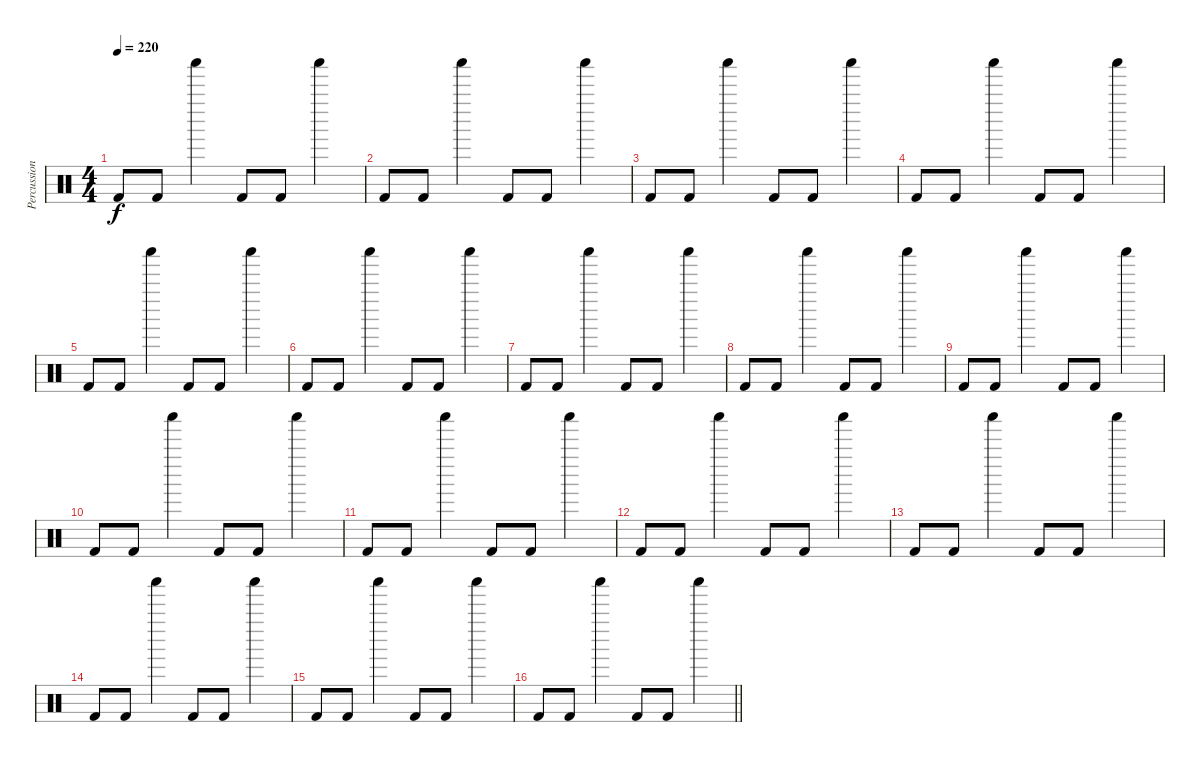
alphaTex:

\track ("Percussions" "Percussion") {instrument percussion}
\staff {score}
\articulation defaults
\ts (4 4)
\tempo 220
\clef neutral
\ks c "Kick (hit) 2".8{dy f} "Kick (hit) 2".8 "Shaker (hit)".4 "Kick (hit) 2".8 "Kick (hit) 2".8 "Shaker (hit)".4
|
"Kick (hit) 2".8 "Kick (hit) 2".8 "Shaker (hit)".4 "Kick (hit) 2".8 "Kick (hit) 2".8 "Shaker (hit)".4 |
"Kick (hit) 2".8 "Kick (hit) 2".8 "Shaker (hit)".4 "Kick (hit) 2".8 "Kick (hit) 2".8 "Shaker (hit)".4 |
"Kick (hit) 2".8 "Kick (hit) 2".8 "Shaker (hit)".4 "Kick (hit) 2".8 "Kick (hit) 2".8 "Shaker (hit)".4 |
"Kick (hit) 2".8 "Kick (hit) 2".8 "Shaker (hit)".4 "Kick (hit) 2".8 "Kick (hit) 2".8 "Shaker (hit)".4 |
"Kick (hit) 2".8 "Kick (hit) 2".8 "Shaker (hit)".4 "Kick (hit) 2".8 "Kick (hit) 2".8 "Shaker (hit)".4 |
"Kick (hit) 2".8 "Kick (hit) 2".8 "Shaker (hit)".4 "Kick (hit) 2".8 "Kick (hit) 2".8 "Shaker (hit)".4 |
"Kick (hit) 2".8 "Kick (hit) 2".8 "Shaker (hit)".4 "Kick (hit) 2".8 "Kick (hit) 2".8 "Shaker (hit)".4 |
"Kick (hit) 2".8 "Kick (hit) 2".8 "Shaker (hit)".4 "Kick (hit) 2".8 "Kick (hit) 2".8 "Shaker (hit)".4 |
"Kick (hit) 2".8 "Kick (hit) 2".8 "Shaker (hit)".4 "Kick (hit) 2".8 "Kick (hit) 2".8 "Shaker (hit)".4 |
"Kick (hit) 2".8 "Kick (hit) 2".8 "Shaker (hit)".4 "Kick (hit) 2".8 "Kick (hit) 2".8 "Shaker (hit)".4 |
"Kick (hit) 2".8 "Kick (hit) 2".8 "Shaker (hit)".4 "Kick (hit) 2".8 "Kick (hit) 2".8 "Shaker (hit)".4 |
"Kick (hit) 2".8 "Kick (hit) 2".8 "Shaker (hit)".4 "Kick (hit) 2".8 "Kick (hit) 2".8 "Shaker (hit)".4 |
"Kick (hit) 2".8 "Kick (hit) 2".8 "Shaker (hit)".4 "Kick (hit) 2".8 "Kick (hit) 2".8 "Shaker (hit)".4 |
"Kick (hit) 2".8 "Kick (hit) 2".8 "Shaker (hit)".4 "Kick (hit) 2".8 "Kick (hit) 2".8 "Shaker (hit)".4 |
\barLineRight lightlight "Kick (hit) 2".8 "Kick (hit) 2".8 "Shaker (hit)".4 "Kick (hit) 2".8 "Kick (hit) 2".8 "Shaker (hit)".4
